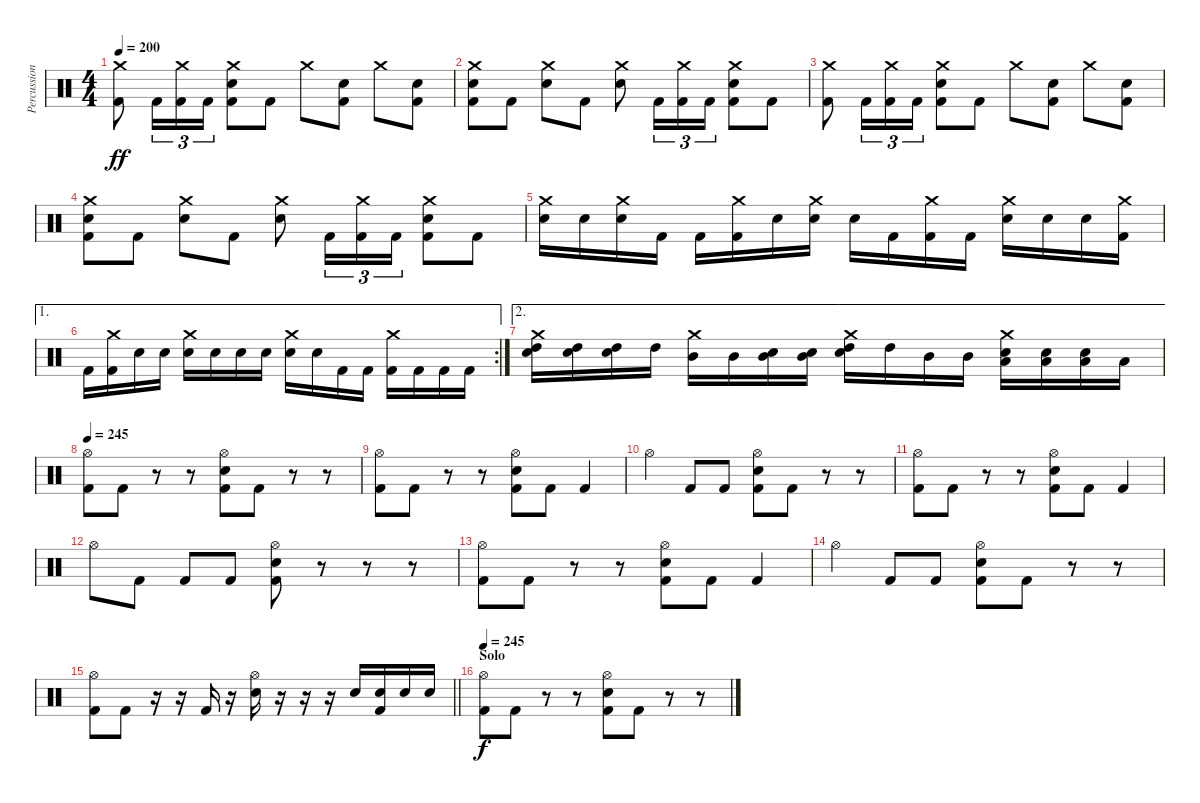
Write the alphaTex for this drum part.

\track ("Percussion" "Percussion") {instrument percussion}
\staff {score}
\articulation defaults
\ts (4 4)
\tempo 200
\clef neutral
\ks c
("Crash medium (hit)" "Kick (hit) 2").8{dy ff} "Kick (hit) 2".16{tu (3 2)} ("Crash medium (hit)" "Kick (hit) 2").16{tu (3 2)} "Kick (hit) 2".16{tu (3 2)} ("Crash medium (hit)" "Electric Snare (hit)" "Kick (hit) 2").8 "Kick (hit) 2".8 "Crash medium (hit)".8 ("Electric Snare (hit)" "Kick (hit) 2").8 "Crash medium (hit)".8 ("Electric Snare (hit)" "Kick (hit) 2").8 |
("Crash medium (hit)" "Electric Snare (hit)" "Kick (hit) 2").8 "Kick (hit) 2".8 ("Crash medium (hit)" "Electric Snare (hit)").8 "Kick (hit) 2".8 ("Crash medium (hit)" "Electric Snare (hit)").8 "Kick (hit) 2".16{tu (3 2)} ("Crash medium (hit)" "Kick (hit) 2").16{tu (3 2)} "Kick (hit) 2".16{tu (3 2)} ("Crash medium (hit)" "Electric Snare (hit)" "Kick (hit) 2").8 "Kick (hit) 2".8 |
("Crash medium (hit)" "Kick (hit) 2").8 "Kick (hit) 2".16{tu (3 2)} ("Crash medium (hit)" "Kick (hit) 2").16{tu (3 2)} "Kick (hit) 2".16{tu (3 2)} ("Crash medium (hit)" "Electric Snare (hit)" "Kick (hit) 2").8 "Kick (hit) 2".8 "Crash medium (hit)".8 ("Electric Snare (hit)" "Kick (hit) 2").8 "Crash medium (hit)".8 ("Electric Snare (hit)" "Kick (hit) 2").8 |
("Crash medium (hit)" "Electric Snare (hit)" "Kick (hit) 2").8 "Kick (hit) 2".8 ("Crash medium (hit)" "Electric Snare (hit)").8 "Kick (hit) 2".8 ("Crash medium (hit)" "Electric Snare (hit)").8 "Kick (hit) 2".16{tu (3 2)} ("Crash medium (hit)" "Kick (hit) 2").16{tu (3 2)} "Kick (hit) 2".16{tu (3 2)} ("Crash medium (hit)" "Electric Snare (hit)" "Kick (hit) 2").8 "Kick (hit) 2".8 |
("Crash medium (hit)" "Electric Snare (hit)").16 "Electric Snare (hit)".16 ("Crash medium (hit)" "Electric Snare (hit)").16 "Kick (hit) 2".16 "Kick (hit) 2".16 ("Crash medium (hit)" "Kick (hit) 2").16 "Electric Snare (hit)".16 ("Crash medium (hit)" "Electric Snare (hit)").16 "Electric Snare (hit)".16 "Kick (hit) 2".16 ("Crash medium (hit)" "Kick (hit) 2").16 "Kick (hit) 2".16 ("Crash medium (hit)" "Electric Snare (hit)").16 "Electric Snare (hit)".16 "Electric Snare (hit)".16 ("Crash medium (hit)" "Kick (hit) 2").16 |
\ae 1
\rc 2 "Kick (hit) 2".16
("Crash medium (hit)" "Kick (hit) 2").16 "Electric Snare (hit)".16 "Electric Snare (hit)".16 ("Crash medium (hit)" "Electric Snare (hit)").16 "Electric Snare (hit)".16 "Electric Snare (hit)".16 "Electric Snare (hit)".16 ("Crash medium (hit)" "Electric Snare (hit)").16 "Electric Snare (hit)".16 "Kick (hit) 2".16 "Kick (hit) 2".16 ("Crash medium (hit)" "Kick (hit) 2").16 "Kick (hit) 2".16 "Kick (hit) 2".16 "Kick (hit) 2".16 |
\ae 2
("Crash medium (hit)" "High Tom (hit)" "Electric Snare (hit)").16 ("High Tom (hit)" "Electric Snare (hit)").16 ("High Tom (hit)" "Electric Snare (hit)").16 "High Tom (hit)".16 ("Crash medium (hit)" "Mid Tom (hit)").16 "Mid Tom (hit)".16 ("Mid Tom (hit)" "Electric Snare (hit)").16 ("Mid Tom (hit)" "Electric Snare (hit)").16 ("Crash medium (hit)" "High Tom (hit)" "Electric Snare (hit)").16 "High Tom (hit)".16 "Mid Tom (hit)".16 "Mid Tom (hit)".16 ("Crash medium (hit)" "Low Tom (hit)" "Electric Snare (hit)").16 ("Low Tom (hit)" "Electric Snare (hit)").16 ("Low Tom (hit)" "Electric Snare (hit)").16 "Low Tom (hit)".16 |
\tempo 245
("Hi-Hat (open)" "Kick (hit) 2").8 "Kick (hit) 2".8 r.8 r.8 ("Hi-Hat (open)" "Electric Snare (hit)" "Kick (hit) 2").8 "Kick (hit) 2".8 r.8 r.8 |
("Hi-Hat (open)" "Kick (hit) 2").8 "Kick (hit) 2".8 r.8 r.8 ("Hi-Hat (open)" "Electric Snare (hit)" "Kick (hit) 2").8 "Kick (hit) 2".8 "Kick (hit) 2".4 |
"Hi-Hat (open)".4 "Kick (hit) 2".8 "Kick (hit) 2".8 ("Hi-Hat (open)" "Electric Snare (hit)" "Kick (hit) 2").8 "Kick (hit) 2".8 r.8 r.8 |
("Hi-Hat (open)" "Kick (hit) 2").8 "Kick (hit) 2".8 r.8 r.8 ("Hi-Hat (open)" "Electric Snare (hit)" "Kick (hit) 2").8 "Kick (hit) 2".8 "Kick (hit) 2".4 |
"Hi-Hat (open)".8 "Kick (hit) 2".8 "Kick (hit) 2".8 "Kick (hit) 2".8 ("Hi-Hat (open)" "Electric Snare (hit)" "Kick (hit) 2").8 r.8 r.8 r.8 |
("Hi-Hat (open)" "Kick (hit) 2").8 "Kick (hit) 2".8 r.8 r.8 ("Hi-Hat (open)" "Electric Snare (hit)" "Kick (hit) 2").8 "Kick (hit) 2".8 "Kick (hit) 2".4 |
"Hi-Hat (open)".4 "Kick (hit) 2".8 "Kick (hit) 2".8 ("Hi-Hat (open)" "Electric Snare (hit)" "Kick (hit) 2").8 "Kick (hit) 2".8 r.8 r.8 |
\barLineRight lightlight
("Hi-Hat (open)" "Kick (hit) 2").8 "Kick (hit) 2".8 r.16 r.16 "Kick (hit) 2".16 r.16 ("Hi-Hat (open)" "Electric Snare (hit)").16 r.16 r.16 r.16 "Electric Snare (hit)".16 ("Electric Snare (hit)" "Kick (hit) 2").16 "Electric Snare (hit)".16 "Electric Snare (hit)".16 |
\section ("" "Solo")
\tempo 245
("Hi-Hat (open)" "Kick (hit) 2").8{dy f} "Kick (hit) 2".8 r.8 r.8 ("Hi-Hat (open)" "Electric Snare (hit)" "Kick (hit) 2").8 "Kick (hit) 2".8 r.8 r.8
